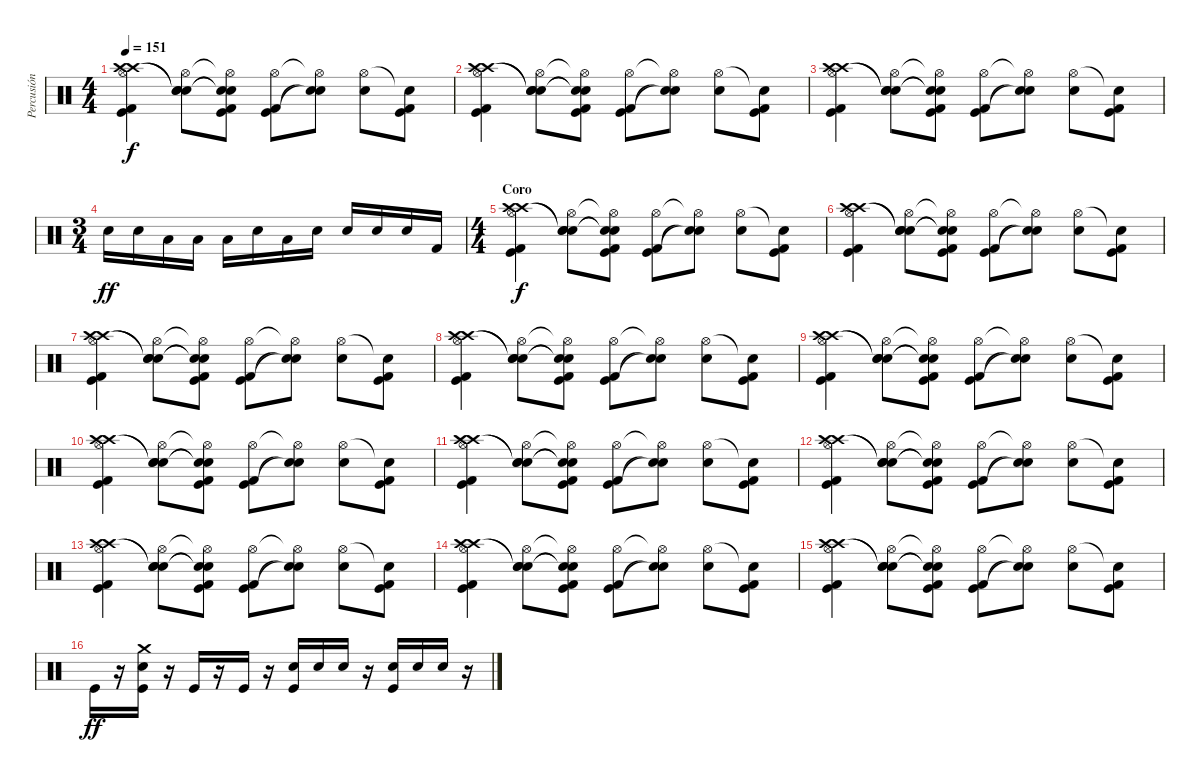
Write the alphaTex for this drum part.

\track ("Percusión" "Percusión") {instrument percussion}
\staff {score}
\articulation defaults
\ts (4 4)
\tempo 151
\clef neutral
\ks c
("Hi-Hat (open)" "Crash high (hit)" "Crash high (hit)" "Kick (hit)" "Kick (hit) 2").4{dy f} ("Hi-Hat (open)" "Snare (hit)"{t} "Snare (hit)"{t} "Electric Snare (hit)").8 ("Hi-Hat (open)"{t} "Snare (hit)"{t} "Snare (hit)"{t} "Kick (hit)" "Kick (hit) 2").8 ("Hi-Hat (open)" "Kick (hit)" "Kick (hit) 2").8 ("Hi-Hat (open)"{t} "Electric Snare (hit)"{t} "Snare (hit)"{t}).8 ("Hi-Hat (open)" "Electric Snare (hit)").8 ("Snare (hit)"{t} "Kick (hit)" "Kick (hit) 2").8 |
("Hi-Hat (open)" "Crash high (hit)" "Crash high (hit)" "Kick (hit)" "Kick (hit) 2").4 ("Hi-Hat (open)" "Snare (hit)"{t} "Snare (hit)"{t} "Electric Snare (hit)").8 ("Hi-Hat (open)"{t} "Snare (hit)"{t} "Snare (hit)"{t} "Kick (hit)" "Kick (hit) 2").8 ("Hi-Hat (open)" "Kick (hit)" "Kick (hit) 2").8 ("Hi-Hat (open)"{t} "Electric Snare (hit)"{t} "Snare (hit)"{t}).8 ("Hi-Hat (open)" "Electric Snare (hit)").8 ("Snare (hit)"{t} "Kick (hit)" "Kick (hit) 2").8 |
("Hi-Hat (open)" "Crash high (hit)" "Crash high (hit)" "Kick (hit)" "Kick (hit) 2").4 ("Hi-Hat (open)" "Snare (hit)"{t} "Snare (hit)"{t} "Electric Snare (hit)").8 ("Hi-Hat (open)"{t} "Snare (hit)"{t} "Snare (hit)"{t} "Kick (hit)" "Kick (hit) 2").8 ("Hi-Hat (open)" "Kick (hit)" "Kick (hit) 2").8 ("Hi-Hat (open)"{t} "Electric Snare (hit)"{t} "Snare (hit)"{t}).8 ("Hi-Hat (open)" "Electric Snare (hit)").8 ("Snare (hit)"{t} "Kick (hit)" "Kick (hit) 2").8 |
\ts (3 4)
"Snare (hit) 2".16{dy ff} "Electric Snare (hit)".16 "Low Floor Tom (hit)".16 "Low Floor Tom (hit)".16 "Low Floor Tom (hit)".16 "Electric Snare (hit)".16 "Low Floor Tom (hit)".16 "Electric Snare (hit)".16 "Snare (hit) 2".16 "Electric Snare (hit)".16 "Snare (hit) 2".16 "Kick (hit) 2".16 |
\ts (4 4)
\section ("" "Coro")
("Hi-Hat (open)" "Crash high (hit)" "Crash high (hit)" "Kick (hit)" "Kick (hit) 2").4{dy f} ("Hi-Hat (open)" "Snare (hit)"{t} "Snare (hit)"{t} "Electric Snare (hit)").8 ("Hi-Hat (open)"{t} "Snare (hit)"{t} "Snare (hit)"{t} "Kick (hit)" "Kick (hit) 2").8 ("Hi-Hat (open)" "Kick (hit)" "Kick (hit) 2").8 ("Hi-Hat (open)"{t} "Electric Snare (hit)"{t} "Snare (hit)"{t}).8 ("Hi-Hat (open)" "Electric Snare (hit)").8 ("Snare (hit)"{t} "Kick (hit)" "Kick (hit) 2").8 |
("Hi-Hat (open)" "Crash high (hit)" "Crash high (hit)" "Kick (hit)" "Kick (hit) 2").4 ("Hi-Hat (open)" "Snare (hit)"{t} "Snare (hit)"{t} "Electric Snare (hit)").8 ("Hi-Hat (open)"{t} "Snare (hit)"{t} "Snare (hit)"{t} "Kick (hit)" "Kick (hit) 2").8 ("Hi-Hat (open)" "Kick (hit)" "Kick (hit) 2").8 ("Hi-Hat (open)"{t} "Electric Snare (hit)"{t} "Snare (hit)"{t}).8 ("Hi-Hat (open)" "Electric Snare (hit)").8 ("Snare (hit)"{t} "Kick (hit)" "Kick (hit) 2").8 |
("Hi-Hat (open)" "Crash high (hit)" "Crash high (hit)" "Kick (hit)" "Kick (hit) 2").4 ("Hi-Hat (open)" "Snare (hit)"{t} "Snare (hit)"{t} "Electric Snare (hit)").8 ("Hi-Hat (open)"{t} "Snare (hit)"{t} "Snare (hit)"{t} "Kick (hit)" "Kick (hit) 2").8 ("Hi-Hat (open)" "Kick (hit)" "Kick (hit) 2").8 ("Hi-Hat (open)"{t} "Electric Snare (hit)"{t} "Snare (hit)"{t}).8 ("Hi-Hat (open)" "Electric Snare (hit)").8 ("Snare (hit)"{t} "Kick (hit)" "Kick (hit) 2").8 |
("Hi-Hat (open)" "Crash high (hit)" "Crash high (hit)" "Kick (hit)" "Kick (hit) 2").4 ("Hi-Hat (open)" "Snare (hit)"{t} "Snare (hit)"{t} "Electric Snare (hit)").8 ("Hi-Hat (open)"{t} "Snare (hit)"{t} "Snare (hit)"{t} "Kick (hit)" "Kick (hit) 2").8 ("Hi-Hat (open)" "Kick (hit)" "Kick (hit) 2").8 ("Hi-Hat (open)"{t} "Electric Snare (hit)"{t} "Snare (hit)"{t}).8 ("Hi-Hat (open)" "Electric Snare (hit)").8 ("Snare (hit)"{t} "Kick (hit)" "Kick (hit) 2").8 |
("Hi-Hat (open)" "Crash high (hit)" "Crash high (hit)" "Kick (hit)" "Kick (hit) 2").4 ("Hi-Hat (open)" "Snare (hit)"{t} "Snare (hit)"{t} "Electric Snare (hit)").8 ("Hi-Hat (open)"{t} "Snare (hit)"{t} "Snare (hit)"{t} "Kick (hit)" "Kick (hit) 2").8 ("Hi-Hat (open)" "Kick (hit)" "Kick (hit) 2").8 ("Hi-Hat (open)"{t} "Electric Snare (hit)"{t} "Snare (hit)"{t}).8 ("Hi-Hat (open)" "Electric Snare (hit)").8 ("Snare (hit)"{t} "Kick (hit)" "Kick (hit) 2").8 |
("Hi-Hat (open)" "Crash high (hit)" "Crash high (hit)" "Kick (hit)" "Kick (hit) 2").4 ("Hi-Hat (open)" "Snare (hit)"{t} "Snare (hit)"{t} "Electric Snare (hit)").8 ("Hi-Hat (open)"{t} "Snare (hit)"{t} "Snare (hit)"{t} "Kick (hit)" "Kick (hit) 2").8 ("Hi-Hat (open)" "Kick (hit)" "Kick (hit) 2").8 ("Hi-Hat (open)"{t} "Electric Snare (hit)"{t} "Snare (hit)"{t}).8 ("Hi-Hat (open)" "Electric Snare (hit)").8 ("Snare (hit)"{t} "Kick (hit)" "Kick (hit) 2").8 |
("Hi-Hat (open)" "Crash high (hit)" "Crash high (hit)" "Kick (hit)" "Kick (hit) 2").4 ("Hi-Hat (open)" "Snare (hit)"{t} "Snare (hit)"{t} "Electric Snare (hit)").8 ("Hi-Hat (open)"{t} "Snare (hit)"{t} "Snare (hit)"{t} "Kick (hit)" "Kick (hit) 2").8 ("Hi-Hat (open)" "Kick (hit)" "Kick (hit) 2").8 ("Hi-Hat (open)"{t} "Electric Snare (hit)"{t} "Snare (hit)"{t}).8 ("Hi-Hat (open)" "Electric Snare (hit)").8 ("Snare (hit)"{t} "Kick (hit)" "Kick (hit) 2").8 |
("Hi-Hat (open)" "Crash high (hit)" "Crash high (hit)" "Kick (hit)" "Kick (hit) 2").4 ("Hi-Hat (open)" "Snare (hit)"{t} "Snare (hit)"{t} "Electric Snare (hit)").8 ("Hi-Hat (open)"{t} "Snare (hit)"{t} "Snare (hit)"{t} "Kick (hit)" "Kick (hit) 2").8 ("Hi-Hat (open)" "Kick (hit)" "Kick (hit) 2").8 ("Hi-Hat (open)"{t} "Electric Snare (hit)"{t} "Snare (hit)"{t}).8 ("Hi-Hat (open)" "Electric Snare (hit)").8 ("Snare (hit)"{t} "Kick (hit)" "Kick (hit) 2").8 |
("Hi-Hat (open)" "Crash high (hit)" "Crash high (hit)" "Kick (hit)" "Kick (hit) 2").4 ("Hi-Hat (open)" "Snare (hit)"{t} "Snare (hit)"{t} "Electric Snare (hit)").8 ("Hi-Hat (open)"{t} "Snare (hit)"{t} "Snare (hit)"{t} "Kick (hit)" "Kick (hit) 2").8 ("Hi-Hat (open)" "Kick (hit)" "Kick (hit) 2").8 ("Hi-Hat (open)"{t} "Electric Snare (hit)"{t} "Snare (hit)"{t}).8 ("Hi-Hat (open)" "Electric Snare (hit)").8 ("Snare (hit)"{t} "Kick (hit)" "Kick (hit) 2").8 |
("Hi-Hat (open)" "Crash high (hit)" "Crash high (hit)" "Kick (hit)" "Kick (hit) 2").4 ("Hi-Hat (open)" "Snare (hit)"{t} "Snare (hit)"{t} "Electric Snare (hit)").8 ("Hi-Hat (open)"{t} "Snare (hit)"{t} "Snare (hit)"{t} "Kick (hit)" "Kick (hit) 2").8 ("Hi-Hat (open)" "Kick (hit)" "Kick (hit) 2").8 ("Hi-Hat (open)"{t} "Electric Snare (hit)"{t} "Snare (hit)"{t}).8 ("Hi-Hat (open)" "Electric Snare (hit)").8 ("Snare (hit)"{t} "Kick (hit)" "Kick (hit) 2").8 |
("Hi-Hat (open)" "Crash high (hit)" "Crash high (hit)" "Kick (hit)" "Kick (hit) 2").4 ("Hi-Hat (open)" "Snare (hit)"{t} "Snare (hit)"{t} "Electric Snare (hit)").8 ("Hi-Hat (open)"{t} "Snare (hit)"{t} "Snare (hit)"{t} "Kick (hit)" "Kick (hit) 2").8 ("Hi-Hat (open)" "Kick (hit)" "Kick (hit) 2").8 ("Hi-Hat (open)"{t} "Electric Snare (hit)"{t} "Snare (hit)"{t}).8 ("Hi-Hat (open)" "Electric Snare (hit)").8 ("Snare (hit)"{t} "Kick (hit)" "Kick (hit) 2").8 |
"Kick (hit)".16{dy ff} r.16 ("Kick (hit)" "Snare (hit) 2" "Crash medium (hit)").16 r.16 "Kick (hit)".16 r.16 "Kick (hit)".16 r.16 ("Kick (hit)" "Snare (hit) 2").16 "Snare (hit) 2".16 "Snare (hit) 2".16 r.16 ("Kick (hit)" "Snare (hit) 2").16 "Snare (hit) 2".16 "Snare (hit) 2".16 r.16
